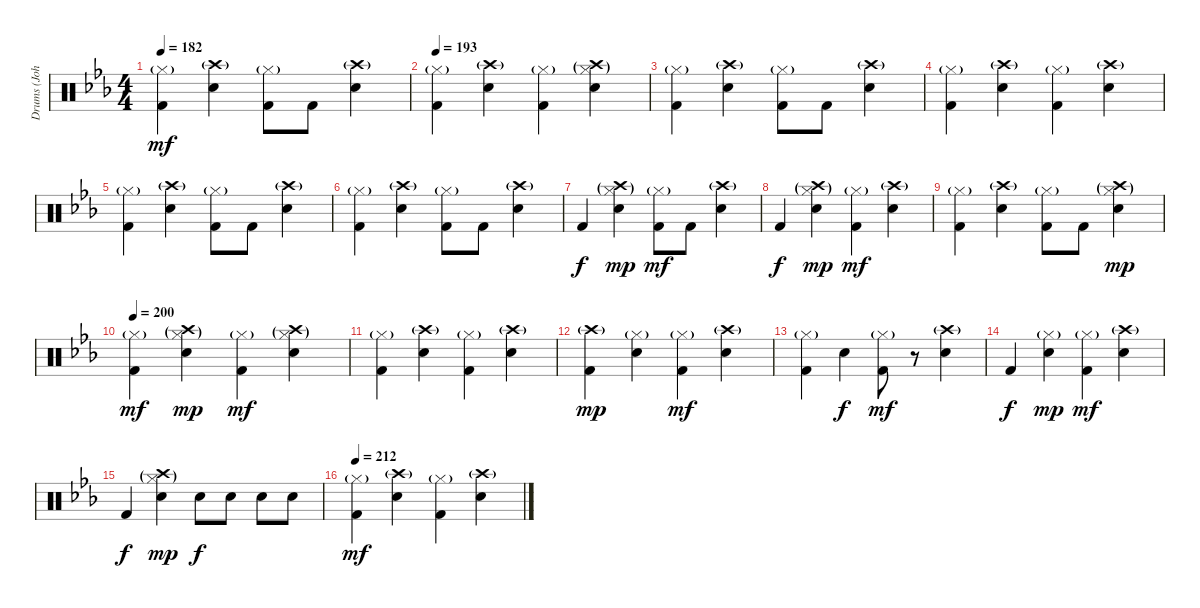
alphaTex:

\track ("Drums (John O'Reilly)" "Drums (Joh") {instrument percussion}
\staff {score}
\articulation defaults
\ts (4 4)
\tempo 182
\clef neutral
\ks cminor
("Hi-Hat (closed)"{g} "Kick (hit) 2").4{dy mf} ("Crash high (hit)"{g} "Electric Snare (hit)").4 ("Hi-Hat (closed)"{g} "Kick (hit) 2").8 "Kick (hit) 2".8 ("Crash high (hit)"{g} "Electric Snare (hit)").4 |
\tempo 193
("Hi-Hat (closed)"{g} "Kick (hit) 2").4 ("Crash high (hit)"{g} "Electric Snare (hit)").4 ("Hi-Hat (closed)"{g} "Kick (hit) 2").4 ("Crash high (hit)"{g} "Hi-Hat (closed)"{g} "Electric Snare (hit)").4 |
("Hi-Hat (closed)"{g} "Kick (hit) 2").4 ("Crash high (hit)"{g} "Electric Snare (hit)").4 ("Hi-Hat (closed)"{g} "Kick (hit) 2").8 "Kick (hit) 2".8 ("Crash high (hit)"{g} "Electric Snare (hit)").4 |
("Hi-Hat (closed)"{g} "Kick (hit) 2").4 ("Crash high (hit)"{g} "Electric Snare (hit)").4 ("Hi-Hat (closed)"{g} "Kick (hit) 2").4 ("Crash high (hit)"{g} "Electric Snare (hit)").4 |
("Hi-Hat (closed)"{g} "Kick (hit) 2").4 ("Crash high (hit)"{g} "Electric Snare (hit)").4 ("Hi-Hat (closed)"{g} "Kick (hit) 2").8 "Kick (hit) 2".8 ("Crash high (hit)"{g} "Electric Snare (hit)").4 |
("Hi-Hat (closed)"{g} "Kick (hit) 2").4 ("Crash high (hit)"{g} "Electric Snare (hit)").4 ("Hi-Hat (closed)"{g} "Kick (hit) 2").8 "Kick (hit) 2".8 ("Crash high (hit)"{g} "Electric Snare (hit)").4 |
"Kick (hit) 2".4{dy f} ("Crash high (hit)"{g} "Hi-Hat (closed)"{g} "Electric Snare (hit)").4{dy mp} ("Hi-Hat (closed)"{g} "Kick (hit) 2").8{dy mf} "Kick (hit) 2".8 ("Crash high (hit)"{g} "Electric Snare (hit)").4 |
"Kick (hit) 2".4{dy f} ("Crash high (hit)"{g} "Hi-Hat (closed)"{g} "Electric Snare (hit)").4{dy mp} ("Hi-Hat (closed)"{g} "Kick (hit) 2").4{dy mf} ("Crash high (hit)"{g} "Electric Snare (hit)").4 |
("Hi-Hat (closed)"{g} "Kick (hit) 2").4 ("Crash high (hit)"{g} "Electric Snare (hit)").4 ("Hi-Hat (closed)"{g} "Kick (hit) 2").8 "Kick (hit) 2".8 ("Crash high (hit)"{g} "Hi-Hat (closed)"{g} "Electric Snare (hit)").4{dy mp} |
\tempo 200
("Hi-Hat (closed)"{g} "Kick (hit) 2").4{dy mf} ("Crash high (hit)"{g} "Hi-Hat (closed)"{g} "Electric Snare (hit)").4{dy mp} ("Hi-Hat (closed)"{g} "Kick (hit) 2").4{dy mf} ("Crash high (hit)"{g} "Hi-Hat (closed)"{g} "Electric Snare (hit)").4 |
("Hi-Hat (closed)"{g} "Kick (hit) 2").4 ("Crash high (hit)"{g} "Electric Snare (hit)").4 ("Hi-Hat (closed)"{g} "Kick (hit) 2").4 ("Crash high (hit)"{g} "Electric Snare (hit)").4 |
("Crash high (hit)"{g} "Kick (hit) 2").4{dy mp} ("Hi-Hat (closed)"{g} "Electric Snare (hit)").4 ("Hi-Hat (closed)"{g} "Kick (hit) 2").4{dy mf} ("Crash high (hit)"{g} "Electric Snare (hit)").4 |
("Hi-Hat (closed)"{g} "Kick (hit) 2").4 "Electric Snare (hit)".4{dy f} ("Hi-Hat (closed)"{g} "Kick (hit) 2").8{dy mf} r.8 ("Crash high (hit)"{g} "Electric Snare (hit)").4 |
"Kick (hit) 2".4{dy f} ("Hi-Hat (closed)"{g} "Electric Snare (hit)").4{dy mp} ("Hi-Hat (closed)"{g} "Kick (hit) 2").4{dy mf} ("Crash high (hit)"{g} "Electric Snare (hit)").4 |
"Kick (hit) 2".4{dy f} ("Crash high (hit)"{g} "Hi-Hat (closed)"{g} "Electric Snare (hit)").4{dy mp} "Electric Snare (hit)".8{dy f} "Electric Snare (hit)".8 "Electric Snare (hit)".8 "Electric Snare (hit)".8 |
\tempo 212
("Hi-Hat (closed)"{g} "Kick (hit) 2").4{dy mf} ("Crash high (hit)"{g} "Electric Snare (hit)").4 ("Hi-Hat (closed)"{g} "Kick (hit) 2").4 ("Crash high (hit)"{g} "Electric Snare (hit)").4
